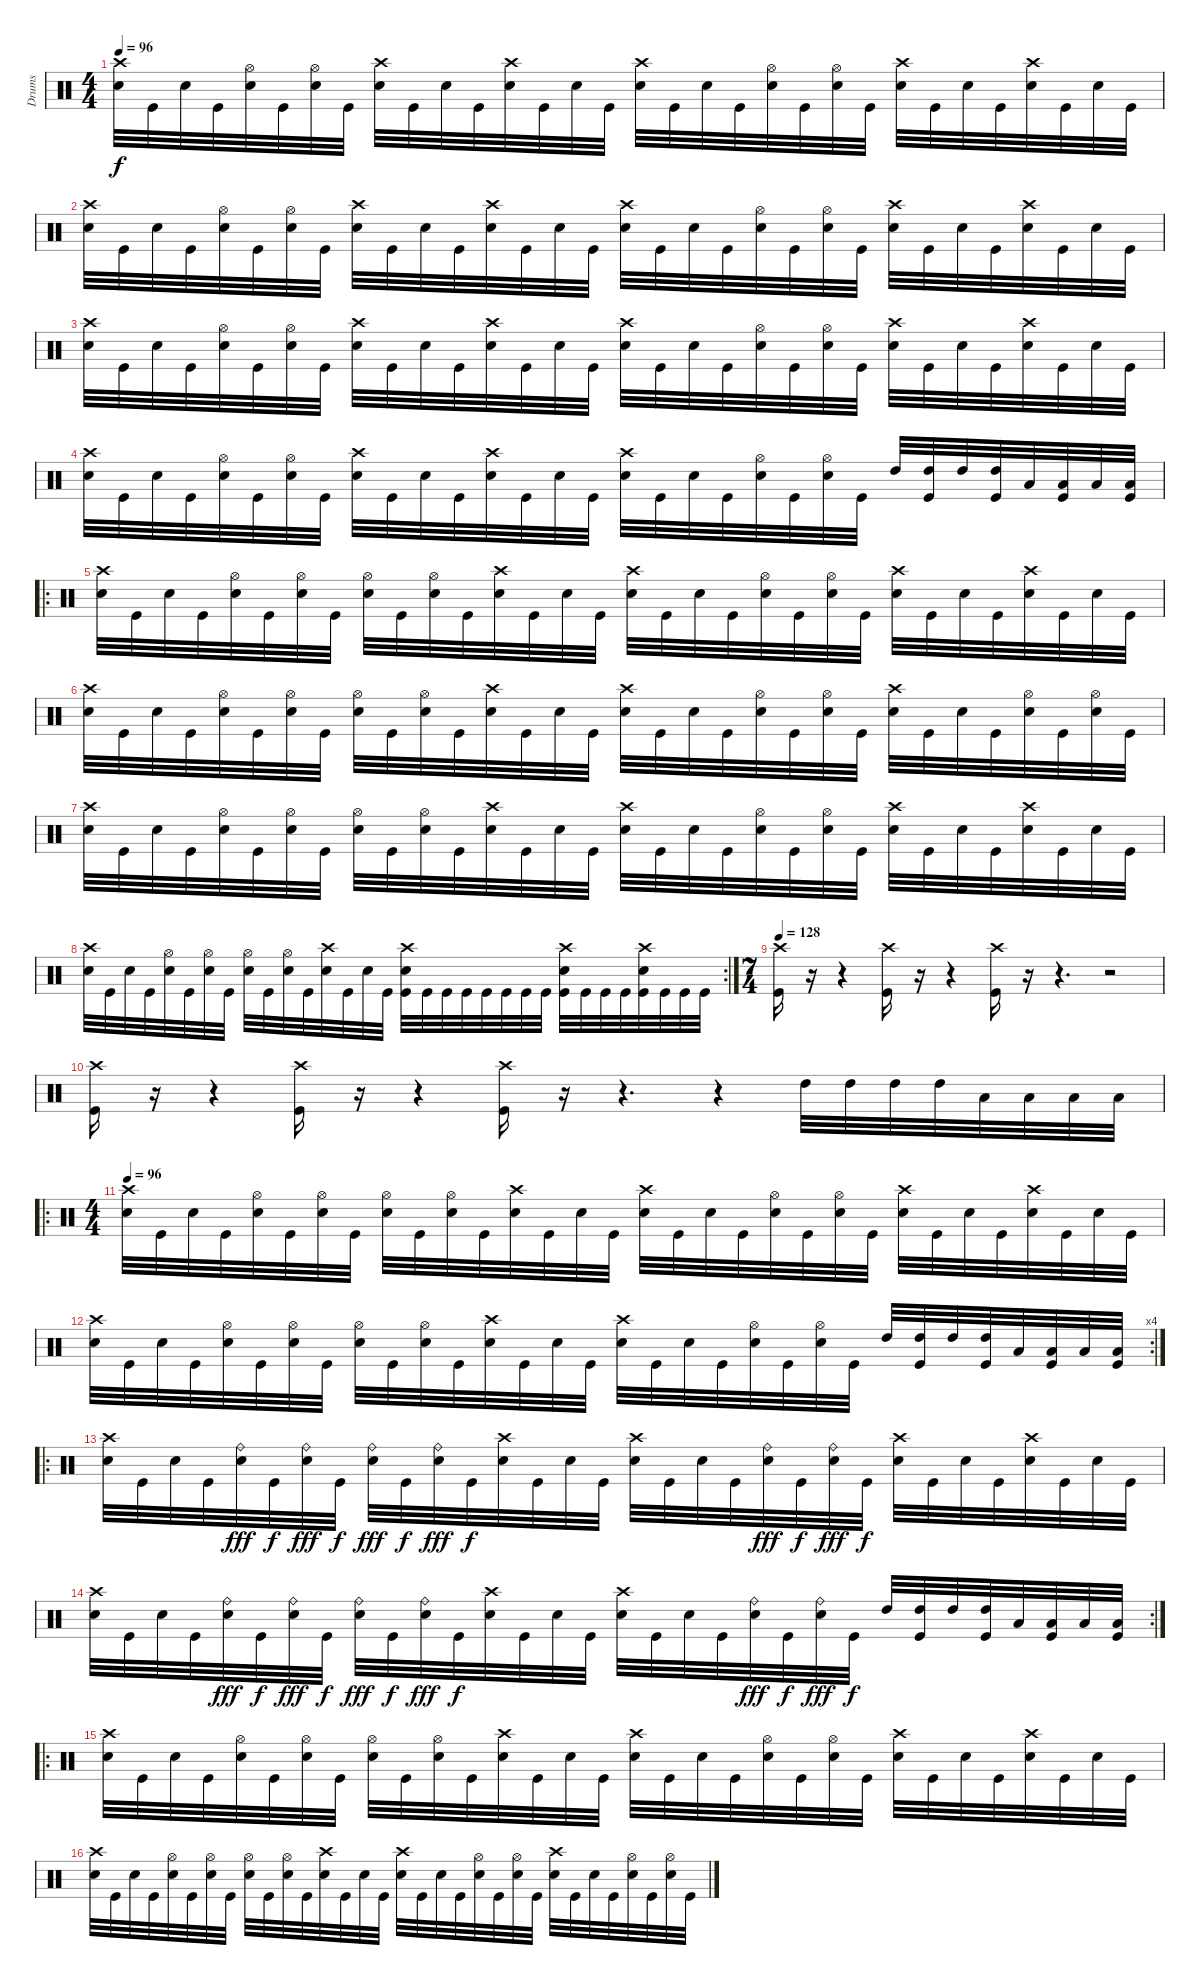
\track ("Drums" "Drums") {instrument percussion}
\staff {score}
\articulation defaults
\ts (4 4)
\tempo 96
\clef neutral
\ks c
("Crash high (hit)" "Snare (hit) 2").32{dy f} "Kick (hit)".32 "Snare (hit) 2".32 "Kick (hit)".32 ("Hi-Hat (open)" "Snare (hit) 2").32 "Kick (hit)".32 ("Hi-Hat (open)" "Snare (hit) 2").32 "Kick (hit)".32 ("Crash high (hit)" "Snare (hit) 2").32 "Kick (hit)".32 "Snare (hit) 2".32 "Kick (hit)".32 ("Crash high (hit)" "Snare (hit) 2").32 "Kick (hit)".32 "Snare (hit) 2".32 "Kick (hit)".32 ("Crash high (hit)" "Snare (hit) 2").32 "Kick (hit)".32 "Snare (hit) 2".32 "Kick (hit)".32 ("Hi-Hat (open)" "Snare (hit) 2").32 "Kick (hit)".32 ("Hi-Hat (open)" "Snare (hit) 2").32 "Kick (hit)".32 ("Crash high (hit)" "Snare (hit) 2").32 "Kick (hit)".32 "Snare (hit) 2".32 "Kick (hit)".32 ("Crash high (hit)" "Snare (hit) 2").32 "Kick (hit)".32 "Snare (hit) 2".32 "Kick (hit)".32 |
("Crash high (hit)" "Snare (hit) 2").32 "Kick (hit)".32 "Snare (hit) 2".32 "Kick (hit)".32 ("Hi-Hat (open)" "Snare (hit) 2").32 "Kick (hit)".32 ("Hi-Hat (open)" "Snare (hit) 2").32 "Kick (hit)".32 ("Crash high (hit)" "Snare (hit) 2").32 "Kick (hit)".32 "Snare (hit) 2".32 "Kick (hit)".32 ("Crash high (hit)" "Snare (hit) 2").32 "Kick (hit)".32 "Snare (hit) 2".32 "Kick (hit)".32 ("Crash high (hit)" "Snare (hit) 2").32 "Kick (hit)".32 "Snare (hit) 2".32 "Kick (hit)".32 ("Hi-Hat (open)" "Snare (hit) 2").32 "Kick (hit)".32 ("Hi-Hat (open)" "Snare (hit) 2").32 "Kick (hit)".32 ("Crash high (hit)" "Snare (hit) 2").32 "Kick (hit)".32 "Snare (hit) 2".32 "Kick (hit)".32 ("Crash high (hit)" "Snare (hit) 2").32 "Kick (hit)".32 "Snare (hit) 2".32 "Kick (hit)".32 |
("Crash high (hit)" "Snare (hit) 2").32 "Kick (hit)".32 "Snare (hit) 2".32 "Kick (hit)".32 ("Hi-Hat (open)" "Snare (hit) 2").32 "Kick (hit)".32 ("Hi-Hat (open)" "Snare (hit) 2").32 "Kick (hit)".32 ("Crash high (hit)" "Snare (hit) 2").32 "Kick (hit)".32 "Snare (hit) 2".32 "Kick (hit)".32 ("Crash high (hit)" "Snare (hit) 2").32 "Kick (hit)".32 "Snare (hit) 2".32 "Kick (hit)".32 ("Crash high (hit)" "Snare (hit) 2").32 "Kick (hit)".32 "Snare (hit) 2".32 "Kick (hit)".32 ("Hi-Hat (open)" "Snare (hit) 2").32 "Kick (hit)".32 ("Hi-Hat (open)" "Snare (hit) 2").32 "Kick (hit)".32 ("Crash high (hit)" "Snare (hit) 2").32 "Kick (hit)".32 "Snare (hit) 2".32 "Kick (hit)".32 ("Crash high (hit)" "Snare (hit) 2").32 "Kick (hit)".32 "Snare (hit) 2".32 "Kick (hit)".32 |
("Crash high (hit)" "Snare (hit) 2").32 "Kick (hit)".32 "Snare (hit) 2".32 "Kick (hit)".32 ("Hi-Hat (open)" "Snare (hit) 2").32 "Kick (hit)".32 ("Hi-Hat (open)" "Snare (hit) 2").32 "Kick (hit)".32 ("Crash high (hit)" "Snare (hit) 2").32 "Kick (hit)".32 "Snare (hit) 2".32 "Kick (hit)".32 ("Crash high (hit)" "Snare (hit) 2").32 "Kick (hit)".32 "Snare (hit) 2".32 "Kick (hit)".32 ("Crash high (hit)" "Snare (hit) 2").32 "Kick (hit)".32 "Snare (hit) 2".32 "Kick (hit)".32 ("Hi-Hat (open)" "Snare (hit) 2").32 "Kick (hit)".32 ("Hi-Hat (open)" "Snare (hit) 2").32 "Kick (hit)".32 "High Tom (hit)".32 ("High Tom (hit)" "Kick (hit)").32 "High Tom (hit)".32 ("High Tom (hit)" "Kick (hit)").32 "Low Tom (hit)".32 ("Low Tom (hit)" "Kick (hit)").32 "Low Tom (hit)".32 ("Low Tom (hit)" "Kick (hit)").32 |
\ro
("Crash high (hit)" "Snare (hit) 2").32 "Kick (hit)".32 "Snare (hit) 2".32 "Kick (hit)".32 ("Hi-Hat (open)" "Snare (hit) 2").32 "Kick (hit)".32 ("Hi-Hat (open)" "Snare (hit) 2").32 "Kick (hit)".32 ("Hi-Hat (open)" "Snare (hit) 2").32 "Kick (hit)".32 ("Hi-Hat (open)" "Snare (hit) 2").32 "Kick (hit)".32 ("Crash high (hit)" "Snare (hit) 2").32 "Kick (hit)".32 "Snare (hit) 2".32 "Kick (hit)".32 ("Crash high (hit)" "Snare (hit) 2").32 "Kick (hit)".32 "Snare (hit) 2".32 "Kick (hit)".32 ("Hi-Hat (open)" "Snare (hit) 2").32 "Kick (hit)".32 ("Hi-Hat (open)" "Snare (hit) 2").32 "Kick (hit)".32 ("Crash high (hit)" "Snare (hit) 2").32 "Kick (hit)".32 "Snare (hit) 2".32 "Kick (hit)".32 ("Crash high (hit)" "Snare (hit) 2").32 "Kick (hit)".32 "Snare (hit) 2".32 "Kick (hit)".32 |
("Crash high (hit)" "Snare (hit) 2").32 "Kick (hit)".32 "Snare (hit) 2".32 "Kick (hit)".32 ("Hi-Hat (open)" "Snare (hit) 2").32 "Kick (hit)".32 ("Hi-Hat (open)" "Snare (hit) 2").32 "Kick (hit)".32 ("Hi-Hat (open)" "Snare (hit) 2").32 "Kick (hit)".32 ("Hi-Hat (open)" "Snare (hit) 2").32 "Kick (hit)".32 ("Crash high (hit)" "Snare (hit) 2").32 "Kick (hit)".32 "Snare (hit) 2".32 "Kick (hit)".32 ("Crash high (hit)" "Snare (hit) 2").32 "Kick (hit)".32 "Snare (hit) 2".32 "Kick (hit)".32 ("Hi-Hat (open)" "Snare (hit) 2").32 "Kick (hit)".32 ("Hi-Hat (open)" "Snare (hit) 2").32 "Kick (hit)".32 ("Crash high (hit)" "Snare (hit) 2").32 "Kick (hit)".32 "Snare (hit) 2".32 "Kick (hit)".32 ("Hi-Hat (open)" "Snare (hit) 2").32 "Kick (hit)".32 ("Hi-Hat (open)" "Snare (hit) 2").32 "Kick (hit)".32 |
("Crash high (hit)" "Snare (hit) 2").32 "Kick (hit)".32 "Snare (hit) 2".32 "Kick (hit)".32 ("Hi-Hat (open)" "Snare (hit) 2").32 "Kick (hit)".32 ("Hi-Hat (open)" "Snare (hit) 2").32 "Kick (hit)".32 ("Hi-Hat (open)" "Snare (hit) 2").32 "Kick (hit)".32 ("Hi-Hat (open)" "Snare (hit) 2").32 "Kick (hit)".32 ("Crash high (hit)" "Snare (hit) 2").32 "Kick (hit)".32 "Snare (hit) 2".32 "Kick (hit)".32 ("Crash high (hit)" "Snare (hit) 2").32 "Kick (hit)".32 "Snare (hit) 2".32 "Kick (hit)".32 ("Hi-Hat (open)" "Snare (hit) 2").32 "Kick (hit)".32 ("Hi-Hat (open)" "Snare (hit) 2").32 "Kick (hit)".32 ("Crash high (hit)" "Snare (hit) 2").32 "Kick (hit)".32 "Snare (hit) 2".32 "Kick (hit)".32 ("Crash high (hit)" "Snare (hit) 2").32 "Kick (hit)".32 "Snare (hit) 2".32 "Kick (hit)".32 |
\rc 2
("Crash high (hit)" "Snare (hit) 2").32 "Kick (hit)".32 "Snare (hit) 2".32 "Kick (hit)".32 ("Hi-Hat (open)" "Snare (hit) 2").32 "Kick (hit)".32 ("Hi-Hat (open)" "Snare (hit) 2").32 "Kick (hit)".32 ("Hi-Hat (open)" "Snare (hit) 2").32 "Kick (hit)".32 ("Hi-Hat (open)" "Snare (hit) 2").32 "Kick (hit)".32 ("Crash high (hit)" "Snare (hit) 2").32 "Kick (hit)".32 "Snare (hit) 2".32 "Kick (hit)".32 ("Crash high (hit)" "Snare (hit) 2" "Kick (hit)").32 "Kick (hit)".32 "Kick (hit)".32 "Kick (hit)".32 "Kick (hit)".32 "Kick (hit)".32 "Kick (hit)".32 "Kick (hit)".32 ("Crash high (hit)" "Snare (hit) 2" "Kick (hit)").32 "Kick (hit)".32 "Kick (hit)".32 "Kick (hit)".32 ("Crash high (hit)" "Snare (hit) 2" "Kick (hit)").32 "Kick (hit)".32 "Kick (hit)".32 "Kick (hit)".32 |
\ts (7 4)
\tempo 128
("Crash high (hit)" "Kick (hit)").16 r.16 r.4 ("Crash high (hit)" "Kick (hit)").16 r.16 r.4 ("Crash high (hit)" "Kick (hit)").16 r.16 r.4{d} r.2 |
("Crash high (hit)" "Kick (hit)").16 r.16 r.4 ("Crash high (hit)" "Kick (hit)").16 r.16 r.4 ("Crash high (hit)" "Kick (hit)").16 r.16 r.4{d} r.4 "High Tom (hit)".32 "High Tom (hit)".32 "High Tom (hit)".32 "High Tom (hit)".32 "Low Tom (hit)".32 "Low Tom (hit)".32 "Low Tom (hit)".32 "Low Tom (hit)".32 |
\ro
\ts (4 4)
\tempo 96
("Crash high (hit)" "Snare (hit) 2").32 "Kick (hit)".32 "Snare (hit) 2".32 "Kick (hit)".32 ("Hi-Hat (open)" "Snare (hit) 2").32 "Kick (hit)".32 ("Hi-Hat (open)" "Snare (hit) 2").32 "Kick (hit)".32 ("Hi-Hat (open)" "Snare (hit) 2").32 "Kick (hit)".32 ("Hi-Hat (open)" "Snare (hit) 2").32 "Kick (hit)".32 ("Crash high (hit)" "Snare (hit) 2").32 "Kick (hit)".32 "Snare (hit) 2".32 "Kick (hit)".32 ("Crash high (hit)" "Snare (hit) 2").32 "Kick (hit)".32 "Snare (hit) 2".32 "Kick (hit)".32 ("Hi-Hat (open)" "Snare (hit) 2").32 "Kick (hit)".32 ("Hi-Hat (open)" "Snare (hit) 2").32 "Kick (hit)".32 ("Crash high (hit)" "Snare (hit) 2").32 "Kick (hit)".32 "Snare (hit) 2".32 "Kick (hit)".32 ("Crash high (hit)" "Snare (hit) 2").32 "Kick (hit)".32 "Snare (hit) 2".32 "Kick (hit)".32 |
\rc 4
("Crash high (hit)" "Snare (hit) 2").32 "Kick (hit)".32 "Snare (hit) 2".32 "Kick (hit)".32 ("Hi-Hat (open)" "Snare (hit) 2").32 "Kick (hit)".32 ("Hi-Hat (open)" "Snare (hit) 2").32 "Kick (hit)".32 ("Hi-Hat (open)" "Snare (hit) 2").32 "Kick (hit)".32 ("Hi-Hat (open)" "Snare (hit) 2").32 "Kick (hit)".32 ("Crash high (hit)" "Snare (hit) 2").32 "Kick (hit)".32 "Snare (hit) 2".32 "Kick (hit)".32 ("Crash high (hit)" "Snare (hit) 2").32 "Kick (hit)".32 "Snare (hit) 2".32 "Kick (hit)".32 ("Hi-Hat (open)" "Snare (hit) 2").32 "Kick (hit)".32 ("Hi-Hat (open)" "Snare (hit) 2").32 "Kick (hit)".32 "High Tom (hit)".32 ("High Tom (hit)" "Kick (hit)").32 "High Tom (hit)".32 ("High Tom (hit)" "Kick (hit)").32 "Low Tom (hit)".32 ("Low Tom (hit)" "Kick (hit)").32 "Low Tom (hit)".32 ("Low Tom (hit)" "Kick (hit)").32 |
\ro
("Crash high (hit)" "Snare (hit) 2").32 "Kick (hit)".32 "Snare (hit) 2".32 "Kick (hit)".32 ("Ride (bell)" "Snare (hit) 2").32{dy fff} "Kick (hit)".32{dy f} ("Ride (bell)" "Snare (hit) 2").32{dy fff} "Kick (hit)".32{dy f} ("Ride (bell)" "Snare (hit) 2").32{dy fff} "Kick (hit)".32{dy f} ("Ride (bell)" "Snare (hit) 2").32{dy fff} "Kick (hit)".32{dy f} ("Crash high (hit)" "Snare (hit) 2").32 "Kick (hit)".32 "Snare (hit) 2".32 "Kick (hit)".32 ("Crash high (hit)" "Snare (hit) 2").32 "Kick (hit)".32 "Snare (hit) 2".32 "Kick (hit)".32 ("Ride (bell)" "Snare (hit) 2").32{dy fff} "Kick (hit)".32{dy f} ("Ride (bell)" "Snare (hit) 2").32{dy fff} "Kick (hit)".32{dy f} ("Crash high (hit)" "Snare (hit) 2").32 "Kick (hit)".32 "Snare (hit) 2".32 "Kick (hit)".32 ("Crash high (hit)" "Snare (hit) 2").32 "Kick (hit)".32 "Snare (hit) 2".32 "Kick (hit)".32 |
\rc 2
("Crash high (hit)" "Snare (hit) 2").32 "Kick (hit)".32 "Snare (hit) 2".32 "Kick (hit)".32 ("Ride (bell)" "Snare (hit) 2").32{dy fff} "Kick (hit)".32{dy f} ("Ride (bell)" "Snare (hit) 2").32{dy fff} "Kick (hit)".32{dy f} ("Ride (bell)" "Snare (hit) 2").32{dy fff} "Kick (hit)".32{dy f} ("Ride (bell)" "Snare (hit) 2").32{dy fff} "Kick (hit)".32{dy f} ("Crash high (hit)" "Snare (hit) 2").32 "Kick (hit)".32 "Snare (hit) 2".32 "Kick (hit)".32 ("Crash high (hit)" "Snare (hit) 2").32 "Kick (hit)".32 "Snare (hit) 2".32 "Kick (hit)".32 ("Ride (bell)" "Snare (hit) 2").32{dy fff} "Kick (hit)".32{dy f} ("Ride (bell)" "Snare (hit) 2").32{dy fff} "Kick (hit)".32{dy f} "High Tom (hit)".32 ("High Tom (hit)" "Kick (hit)").32 "High Tom (hit)".32 ("High Tom (hit)" "Kick (hit)").32 "Low Tom (hit)".32 ("Low Tom (hit)" "Kick (hit)").32 "Low Tom (hit)".32 ("Low Tom (hit)" "Kick (hit)").32 |
\ro
("Crash high (hit)" "Snare (hit) 2").32 "Kick (hit)".32 "Snare (hit) 2".32 "Kick (hit)".32 ("Hi-Hat (open)" "Snare (hit) 2").32 "Kick (hit)".32 ("Hi-Hat (open)" "Snare (hit) 2").32 "Kick (hit)".32 ("Hi-Hat (open)" "Snare (hit) 2").32 "Kick (hit)".32 ("Hi-Hat (open)" "Snare (hit) 2").32 "Kick (hit)".32 ("Crash high (hit)" "Snare (hit) 2").32 "Kick (hit)".32 "Snare (hit) 2".32 "Kick (hit)".32 ("Crash high (hit)" "Snare (hit) 2").32 "Kick (hit)".32 "Snare (hit) 2".32 "Kick (hit)".32 ("Hi-Hat (open)" "Snare (hit) 2").32 "Kick (hit)".32 ("Hi-Hat (open)" "Snare (hit) 2").32 "Kick (hit)".32 ("Crash high (hit)" "Snare (hit) 2").32 "Kick (hit)".32 "Snare (hit) 2".32 "Kick (hit)".32 ("Crash high (hit)" "Snare (hit) 2").32 "Kick (hit)".32 "Snare (hit) 2".32 "Kick (hit)".32 |
("Crash high (hit)" "Snare (hit) 2").32 "Kick (hit)".32 "Snare (hit) 2".32 "Kick (hit)".32 ("Hi-Hat (open)" "Snare (hit) 2").32 "Kick (hit)".32 ("Hi-Hat (open)" "Snare (hit) 2").32 "Kick (hit)".32 ("Hi-Hat (open)" "Snare (hit) 2").32 "Kick (hit)".32 ("Hi-Hat (open)" "Snare (hit) 2").32 "Kick (hit)".32 ("Crash high (hit)" "Snare (hit) 2").32 "Kick (hit)".32 "Snare (hit) 2".32 "Kick (hit)".32 ("Crash high (hit)" "Snare (hit) 2").32 "Kick (hit)".32 "Snare (hit) 2".32 "Kick (hit)".32 ("Hi-Hat (open)" "Snare (hit) 2").32 "Kick (hit)".32 ("Hi-Hat (open)" "Snare (hit) 2").32 "Kick (hit)".32 ("Crash high (hit)" "Snare (hit) 2").32 "Kick (hit)".32 "Snare (hit) 2".32 "Kick (hit)".32 ("Hi-Hat (open)" "Snare (hit) 2").32 "Kick (hit)".32 ("Hi-Hat (open)" "Snare (hit) 2").32 "Kick (hit)".32
